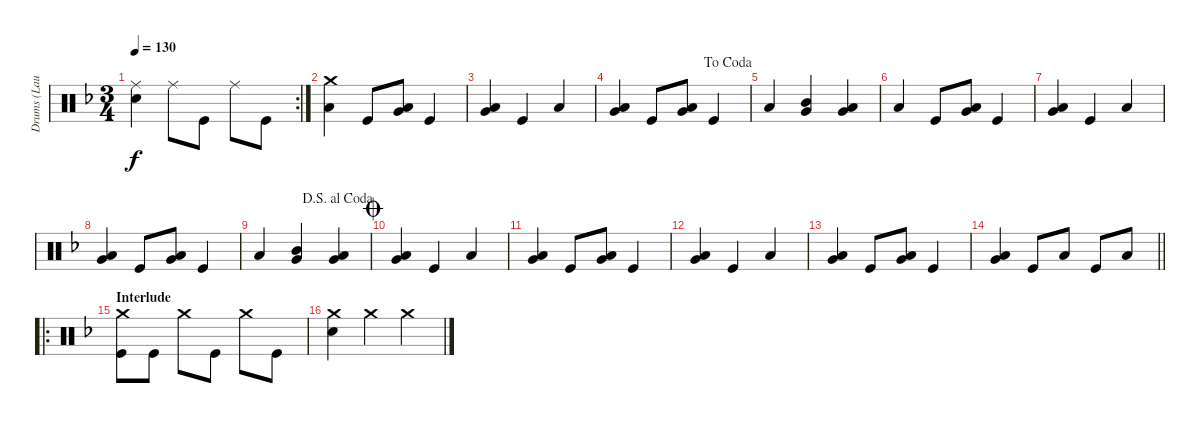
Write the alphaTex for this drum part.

\track ("Drums (Laura)" "Drums (Lau") {instrument percussion}
\staff {score}
\articulation defaults
\rc 2
\ts (3 4)
\tempo 130
\clef neutral
\ks dminor
("Ride (middle)" "Snare (hit) 2").4{dy f} "Ride (middle)".8 "Kick (hit)".8 "Ride (middle)".8 "Kick (hit)".8 |
("Crash medium (hit)" "Low Floor Tom (hit)").4 "Kick (hit)".8 ("Very Low Tom (hit)" "Low Floor Tom (hit)").8 "Kick (hit)".4 |
("Very Low Tom (hit)" "Low Floor Tom (hit)").4 "Kick (hit)".4 "Low Floor Tom (hit)".4 |
\jump dacoda
("Very Low Tom (hit)" "Low Floor Tom (hit)").4 "Kick (hit)".8 ("Very Low Tom (hit)" "Low Floor Tom (hit)").8 "Kick (hit)".4 |
"Low Floor Tom (hit)".4 ("Mid Tom (hit)" "Very Low Tom (hit)").4 ("Low Tom (hit)" "Very Low Tom (hit)").4 |
"Low Floor Tom (hit)".4 "Kick (hit)".8 ("Very Low Tom (hit)" "Low Floor Tom (hit)").8 "Kick (hit)".4 |
("Very Low Tom (hit)" "Low Floor Tom (hit)").4 "Kick (hit)".4 "Low Floor Tom (hit)".4 |
("Very Low Tom (hit)" "Low Floor Tom (hit)").4 "Kick (hit)".8 ("Very Low Tom (hit)" "Low Floor Tom (hit)").8 "Kick (hit)".4 |
\jump dalsegnoalcoda "Low Floor Tom (hit)".4
("Mid Tom (hit)" "Very Low Tom (hit)").4 ("Low Tom (hit)" "Very Low Tom (hit)").4 |
\jump coda
("Very Low Tom (hit)" "Low Floor Tom (hit)").4 "Kick (hit)".4 "Low Floor Tom (hit)".4 |
("Very Low Tom (hit)" "Low Floor Tom (hit)").4 "Kick (hit)".8 ("Very Low Tom (hit)" "Low Floor Tom (hit)").8 "Kick (hit)".4 |
("Very Low Tom (hit)" "Low Floor Tom (hit)").4 "Kick (hit)".4 "Low Floor Tom (hit)".4 |
("Very Low Tom (hit)" "Low Floor Tom (hit)").4 "Kick (hit)".8 ("Very Low Tom (hit)" "Low Floor Tom (hit)").8 "Kick (hit)".4 |
\barLineRight lightlight
("Very Low Tom (hit)" "Low Floor Tom (hit)").4 "Kick (hit)".8 "Low Floor Tom (hit)".8 "Kick (hit)".8 "Low Floor Tom (hit)".8 |
\ro
\section ("" "Interlude")
("Crash medium (hit)" "Kick (hit)").8 "Kick (hit)".8 "Crash medium (hit)".8 "Kick (hit)".8 "Crash medium (hit)".8 "Kick (hit)".8 |
("Crash medium (hit)" "Snare (hit) 2").4 "Crash medium (hit)".4 "Crash medium (hit)".4
